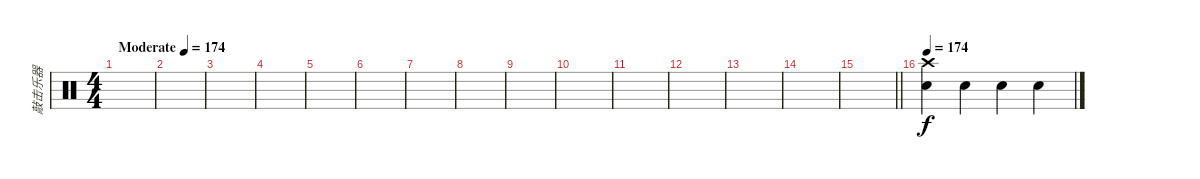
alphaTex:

\track ("敲击乐器" "敲击乐器") {instrument percussion}
\staff {score}
\articulation defaults
\ts (4 4)
\tempo (174 "Moderate")
\tempo 115
\tempo (174 "Moderate")
\clef neutral
\ks c
|
|
|
|
|
|
|
|
|
|
|
|
|
|
\barLineRight lightlight
|
\tempo 174
("Snare (hit) 2" "Crash high (hit)").4 "Snare (hit) 2".4 "Snare (hit) 2".4 "Snare (hit) 2".4
